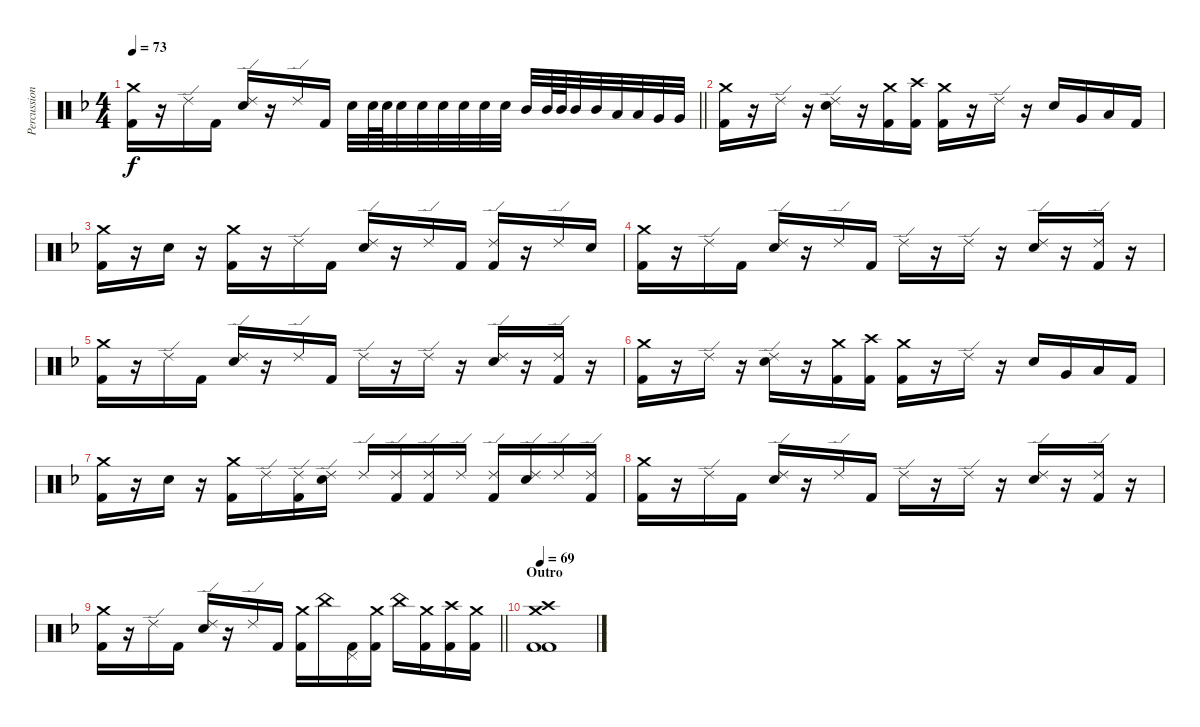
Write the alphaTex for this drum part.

\track ("Percussion" "Percussion") {instrument percussion}
\staff {score}
\articulation defaults
\ts (4 4)
\tempo 73
\clef neutral
\barLineRight lightlight
\ks f
("Crash medium (hit)" "Kick (hit) 2").16{dy f} r.16 "Ride (edge) 2".16 "Kick (hit) 2".16 ("Ride (edge) 2" "Electric Snare (hit)").16 r.16 "Ride (edge) 2".16 "Kick (hit) 2".16 "Electric Snare (hit)".32 "Electric Snare (hit)".64 "Electric Snare (hit)".64 "Electric Snare (hit)".32 "Electric Snare (hit)".32 "Electric Snare (hit)".32 "Electric Snare (hit)".32 "Electric Snare (hit)".32 "Electric Snare (hit)".32 "Mid Tom (hit)".32 "Mid Tom (hit)".64 "Mid Tom (hit)".64 "Mid Tom (hit)".32 "Mid Tom (hit)".32 "Low Tom (hit)".32 "Low Tom (hit)".32 "Very Low Tom (hit)".32 "Very Low Tom (hit)".32 |
("Crash medium (hit)" "Kick (hit) 2").16 r.16 "Ride (edge) 2".16 r.16 ("Ride (edge) 2" "Electric Snare (hit)").16 r.16 ("Crash medium (hit)" "Kick (hit) 2").16 ("Crash high (hit)" "Kick (hit) 2").16 ("Crash medium (hit)" "Kick (hit) 2").16 r.16 "Ride (edge) 2".16 r.16 "Electric Snare (hit)".16 "Very Low Tom (hit)".16 "Low Floor Tom (hit)".16 "Kick (hit) 2".16 |
("Crash medium (hit)" "Kick (hit) 2").16 r.16 "Electric Snare (hit)".16 r.16 ("Crash medium (hit)" "Kick (hit) 2").16 r.16 "Ride (edge) 2".16 "Kick (hit) 2".16 ("Ride (edge) 2" "Electric Snare (hit)").16 r.16 "Ride (edge) 2".16 "Kick (hit) 2".16 ("Ride (edge) 2" "Kick (hit) 2").16 r.16 "Ride (edge) 2".16 "Electric Snare (hit)".16 |
("Crash medium (hit)" "Kick (hit) 2").16 r.16 "Ride (edge) 2".16 "Kick (hit) 2".16 ("Ride (edge) 2" "Electric Snare (hit)").16 r.16 "Ride (edge) 2".16 "Kick (hit) 2".16 "Ride (edge) 2".16 r.16 "Ride (edge) 2".16 r.16 ("Ride (edge) 2" "Electric Snare (hit)").16 r.16 ("Ride (edge) 2" "Kick (hit) 2").16 r.16 |
("Crash medium (hit)" "Kick (hit) 2").16 r.16 "Ride (edge) 2".16 "Kick (hit) 2".16 ("Ride (edge) 2" "Electric Snare (hit)").16 r.16 "Ride (edge) 2".16 "Kick (hit) 2".16 "Ride (edge) 2".16 r.16 "Ride (edge) 2".16 r.16 ("Ride (edge) 2" "Electric Snare (hit)").16 r.16 ("Ride (edge) 2" "Kick (hit) 2").16 r.16 |
("Crash medium (hit)" "Kick (hit) 2").16 r.16 "Ride (edge) 2".16 r.16 ("Ride (edge) 2" "Electric Snare (hit)").16 r.16 ("Crash medium (hit)" "Kick (hit) 2").16 ("Crash high (hit)" "Kick (hit) 2").16 ("Crash medium (hit)" "Kick (hit) 2").16 r.16 "Ride (edge) 2".16 r.16 "Electric Snare (hit)".16 "Very Low Tom (hit)".16 "Low Floor Tom (hit)".16 "Kick (hit) 2".16 |
("Crash medium (hit)" "Kick (hit) 2").16 r.16 "Electric Snare (hit)".16 r.16 ("Crash medium (hit)" "Kick (hit) 2").16 "Ride (edge) 2".16 ("Ride (edge) 2" "Kick (hit) 2").16 ("Ride (edge) 2" "Electric Snare (hit)").16 "Ride (edge) 2".16 ("Ride (edge) 2" "Kick (hit) 2").16 ("Ride (edge) 2" "Kick (hit) 2").16 "Ride (edge) 2".16 ("Ride (edge) 2" "Kick (hit) 2").16 ("Ride (edge) 2" "Electric Snare (hit)").16 "Ride (edge) 2".16 ("Ride (edge) 2" "Kick (hit) 2").16 |
("Crash medium (hit)" "Kick (hit) 2").16 r.16 "Ride (edge) 2".16 "Kick (hit) 2".16 ("Ride (edge) 2" "Electric Snare (hit)").16 r.16 "Ride (edge) 2".16 "Kick (hit) 2".16 "Ride (edge) 2".16 r.16 "Ride (edge) 2".16 r.16 ("Ride (edge) 2" "Electric Snare (hit)").16 r.16 ("Ride (edge) 2" "Kick (hit) 2").16 r.16 |
\barLineRight lightlight
("Crash medium (hit)" "Kick (hit) 2").16 r.16 "Ride (edge) 2".16 "Kick (hit) 2".16 ("Ride (edge) 2" "Electric Snare (hit)").16 r.16 "Ride (edge) 2".16 "Kick (hit) 2".16 ("Crash medium (hit)" "Kick (hit) 2").16 "China (hit)".16 ("Pedal Hi-Hat (hit)" "Kick (hit) 2").16 ("Crash medium (hit)" "Kick (hit) 2").16 "China (hit)".16 ("Crash medium (hit)" "Kick (hit) 2").16 ("Crash high (hit)" "Kick (hit) 2").16 ("Crash medium (hit)" "Kick (hit) 2").16 |
\section ("" "Outro")
\tempo 69
("Crash medium (hit)" "Crash high (hit)" "Kick (hit) 2" "Kick (hit) 2").1
